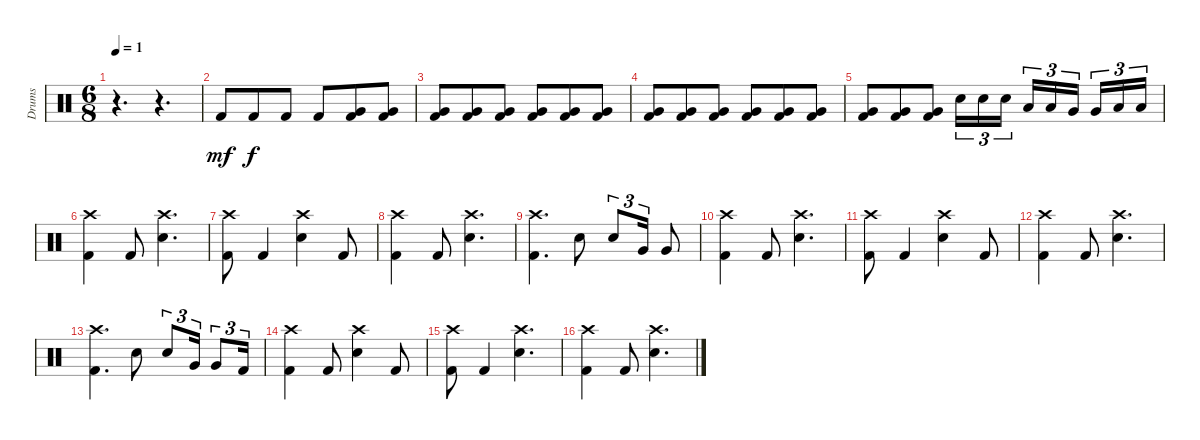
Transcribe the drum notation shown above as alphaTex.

\track ("Drums" "Drums") {instrument percussion}
\staff {score}
\articulation defaults
\ts (6 8)
\tempo 1
\clef neutral
\ks c
r.4{d dy f} r.4{d} |
"Kick (hit) 2".8{dy mf} "Kick (hit) 2".8{dy f} "Kick (hit) 2".8 "Kick (hit) 2".8 ("Very Low Tom (hit)" "Kick (hit) 2").8 ("Very Low Tom (hit)" "Kick (hit) 2").8 |
("Very Low Tom (hit)" "Kick (hit) 2").8 ("Very Low Tom (hit)" "Kick (hit) 2").8 ("Very Low Tom (hit)" "Kick (hit) 2").8 ("Very Low Tom (hit)" "Kick (hit) 2").8 ("Very Low Tom (hit)" "Kick (hit) 2").8 ("Very Low Tom (hit)" "Kick (hit) 2").8 |
("Very Low Tom (hit)" "Kick (hit) 2").8 ("Very Low Tom (hit)" "Kick (hit) 2").8 ("Very Low Tom (hit)" "Kick (hit) 2").8 ("Very Low Tom (hit)" "Kick (hit) 2").8 ("Very Low Tom (hit)" "Kick (hit) 2").8 ("Very Low Tom (hit)" "Kick (hit) 2").8 |
("Very Low Tom (hit)" "Kick (hit) 2").8 ("Very Low Tom (hit)" "Kick (hit) 2").8 ("Very Low Tom (hit)" "Kick (hit) 2").8 "Snare (hit) 2".16{tu (3 2)} "Snare (hit) 2".16{tu (3 2)} "Snare (hit) 2".16{tu (3 2)} "Low Tom (hit)".16{tu (3 2)} "Low Tom (hit)".16{tu (3 2)} "Very Low Tom (hit)".16{tu (3 2)} "Very Low Tom (hit)".16{tu (3 2)} "Low Floor Tom (hit)".16{tu (3 2)} "Low Floor Tom (hit)".16{tu (3 2)} |
("Crash high (hit)" "Kick (hit) 2").4 "Kick (hit) 2".8 ("Crash high (hit)" "Snare (hit) 2").4{d} |
("Crash high (hit)" "Kick (hit) 2").8 "Kick (hit) 2".4 ("Crash high (hit)" "Snare (hit) 2").4 "Kick (hit) 2".8 |
("Crash high (hit)" "Kick (hit) 2").4 "Kick (hit) 2".8 ("Crash high (hit)" "Snare (hit) 2").4{d} |
("Crash high (hit)" "Kick (hit) 2").4{d} "Snare (hit) 2".8 "Snare (hit) 2".8{tu (3 2)} "Very Low Tom (hit)".16{tu (3 2)} "Very Low Tom (hit)".8 |
("Crash high (hit)" "Kick (hit) 2").4 "Kick (hit) 2".8 ("Crash high (hit)" "Snare (hit) 2").4{d} |
("Crash high (hit)" "Kick (hit) 2").8 "Kick (hit) 2".4 ("Crash high (hit)" "Snare (hit) 2").4 "Kick (hit) 2".8 |
("Crash high (hit)" "Kick (hit) 2").4 "Kick (hit) 2".8 ("Crash high (hit)" "Snare (hit) 2").4{d} |
("Crash high (hit)" "Kick (hit) 2").4{d} "Snare (hit) 2".8 "Snare (hit) 2".8{tu (3 2)} "Very Low Tom (hit)".16{tu (3 2)} "Very Low Tom (hit)".8{tu (3 2)} "Kick (hit) 2".16{tu (3 2)} |
("Crash high (hit)" "Kick (hit) 2").4 "Kick (hit) 2".8 ("Crash high (hit)" "Snare (hit) 2").4 "Kick (hit) 2".8 |
("Crash high (hit)" "Kick (hit) 2").8 "Kick (hit) 2".4 ("Crash high (hit)" "Snare (hit) 2").4{d} |
("Crash high (hit)" "Kick (hit) 2").4 "Kick (hit) 2".8 ("Crash high (hit)" "Snare (hit) 2").4{d}
